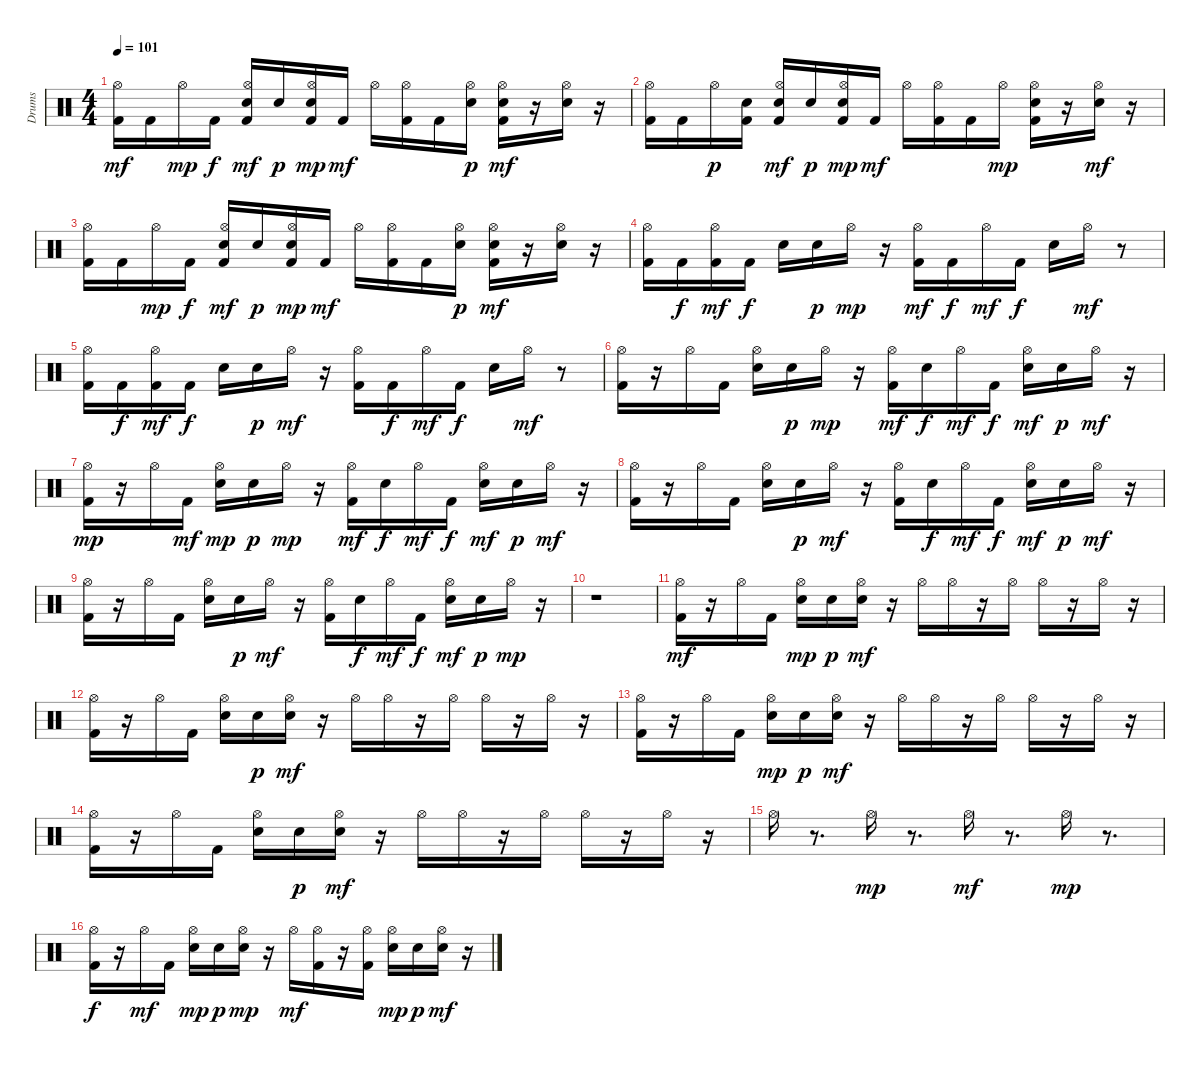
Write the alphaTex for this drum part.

\track ("Drums" "Drums") {instrument percussion}
\staff {score}
\articulation defaults
\ts (4 4)
\tempo 101
\clef neutral
\ks c
("Kick (hit) 2" "Hi-Hat (open)").16{dy mf} "Kick (hit) 2".16 "Hi-Hat (open)".16{dy mp} "Kick (hit) 2".16{dy f} ("Snare (hit) 2" "Hi-Hat (open)" "Kick (hit) 2").16{dy mf} "Snare (hit) 2".16{dy p} ("Kick (hit) 2" "Hi-Hat (open)" "Snare (hit) 2").16{dy mp} "Kick (hit) 2".16{dy mf} "Hi-Hat (open)".16 ("Kick (hit) 2" "Hi-Hat (open)").16 "Kick (hit) 2".16 ("Hi-Hat (open)" "Snare (hit) 2").16{dy p} ("Hi-Hat (open)" "Snare (hit) 2" "Kick (hit) 2").16{dy mf} r.16 ("Snare (hit) 2" "Hi-Hat (open)").16 r.16 |
("Hi-Hat (open)" "Kick (hit) 2").16 "Kick (hit) 2".16 "Hi-Hat (open)".16{dy p} ("Kick (hit) 2" "Snare (hit) 2").16 ("Snare (hit) 2" "Hi-Hat (open)" "Kick (hit) 2").16{dy mf} "Snare (hit) 2".16{dy p} ("Hi-Hat (open)" "Snare (hit) 2" "Kick (hit) 2").16{dy mp} "Kick (hit) 2".16{dy mf} "Hi-Hat (open)".16 ("Hi-Hat (open)" "Kick (hit) 2").16 "Kick (hit) 2".16 "Hi-Hat (open)".16{dy mp} ("Kick (hit) 2" "Snare (hit) 2" "Hi-Hat (open)").16 r.16 ("Snare (hit) 2" "Hi-Hat (open)").16{dy mf} r.16 |
("Kick (hit) 2" "Hi-Hat (open)").16 "Kick (hit) 2".16 "Hi-Hat (open)".16{dy mp} "Kick (hit) 2".16{dy f} ("Snare (hit) 2" "Hi-Hat (open)" "Kick (hit) 2").16{dy mf} "Snare (hit) 2".16{dy p} ("Kick (hit) 2" "Hi-Hat (open)" "Snare (hit) 2").16{dy mp} "Kick (hit) 2".16{dy mf} "Hi-Hat (open)".16 ("Kick (hit) 2" "Hi-Hat (open)").16 "Kick (hit) 2".16 ("Hi-Hat (open)" "Snare (hit) 2").16{dy p} ("Hi-Hat (open)" "Snare (hit) 2" "Kick (hit) 2").16{dy mf} r.16 ("Snare (hit) 2" "Hi-Hat (open)").16 r.16 |
("Kick (hit) 2" "Hi-Hat (open)").16 "Kick (hit) 2".16{dy f} ("Kick (hit) 2" "Hi-Hat (open)").16{dy mf} "Kick (hit) 2".16{dy f} "Snare (hit) 2".16 "Snare (hit) 2".16{dy p} "Hi-Hat (open)".16{dy mp} r.16 ("Hi-Hat (open)" "Kick (hit) 2").16{dy mf} "Kick (hit) 2".16{dy f} "Hi-Hat (open)".16{dy mf} "Kick (hit) 2".16{dy f} "Snare (hit) 2".16 "Hi-Hat (open)".16{dy mf} r.8 |
("Kick (hit) 2" "Hi-Hat (open)").16 "Kick (hit) 2".16{dy f} ("Kick (hit) 2" "Hi-Hat (open)").16{dy mf} "Kick (hit) 2".16{dy f} "Snare (hit) 2".16 "Snare (hit) 2".16{dy p} "Hi-Hat (open)".16{dy mf} r.16 ("Hi-Hat (open)" "Kick (hit) 2").16 "Kick (hit) 2".16{dy f} "Hi-Hat (open)".16{dy mf} "Kick (hit) 2".16{dy f} "Snare (hit) 2".16 "Hi-Hat (open)".16{dy mf} r.8 |
("Kick (hit) 2" "Hi-Hat (open)").16 r.16 "Hi-Hat (open)".16 "Kick (hit) 2".16 ("Snare (hit) 2" "Hi-Hat (open)").16 "Snare (hit) 2".16{dy p} "Hi-Hat (open)".16{dy mp} r.16 ("Kick (hit) 2" "Hi-Hat (open)").16{dy mf} "Snare (hit) 2".16{dy f} "Hi-Hat (open)".16{dy mf} "Kick (hit) 2".16{dy f} ("Hi-Hat (open)" "Snare (hit) 2").16{dy mf} "Snare (hit) 2".16{dy p} "Hi-Hat (open)".16{dy mf} r.16 |
("Kick (hit) 2" "Hi-Hat (open)").16{dy mp} r.16 "Hi-Hat (open)".16 "Kick (hit) 2".16{dy mf} ("Hi-Hat (open)" "Snare (hit) 2").16{dy mp} "Snare (hit) 2".16{dy p} "Hi-Hat (open)".16{dy mp} r.16 ("Hi-Hat (open)" "Kick (hit) 2").16{dy mf} "Snare (hit) 2".16{dy f} "Hi-Hat (open)".16{dy mf} "Kick (hit) 2".16{dy f} ("Snare (hit) 2" "Hi-Hat (open)").16{dy mf} "Snare (hit) 2".16{dy p} "Hi-Hat (open)".16{dy mf} r.16 |
("Kick (hit) 2" "Hi-Hat (open)").16 r.16 "Hi-Hat (open)".16 "Kick (hit) 2".16 ("Snare (hit) 2" "Hi-Hat (open)").16 "Snare (hit) 2".16{dy p} "Hi-Hat (open)".16{dy mf} r.16 ("Kick (hit) 2" "Hi-Hat (open)").16 "Snare (hit) 2".16{dy f} "Hi-Hat (open)".16{dy mf} "Kick (hit) 2".16{dy f} ("Snare (hit) 2" "Hi-Hat (open)").16{dy mf} "Snare (hit) 2".16{dy p} "Hi-Hat (open)".16{dy mf} r.16 |
("Hi-Hat (open)" "Kick (hit) 2").16 r.16 "Hi-Hat (open)".16 "Kick (hit) 2".16 ("Hi-Hat (open)" "Snare (hit) 2").16 "Snare (hit) 2".16{dy p} "Hi-Hat (open)".16{dy mf} r.16 ("Kick (hit) 2" "Hi-Hat (open)").16 "Snare (hit) 2".16{dy f} "Hi-Hat (open)".16{dy mf} "Kick (hit) 2".16{dy f} ("Snare (hit) 2" "Hi-Hat (open)").16{dy mf} "Snare (hit) 2".16{dy p} "Hi-Hat (open)".16{dy mp} r.16 |
r.1 |
("Kick (hit) 2" "Hi-Hat (open)").16{dy mf} r.16 "Hi-Hat (open)".16 "Kick (hit) 2".16 ("Snare (hit) 2" "Hi-Hat (open)").16{dy mp} "Snare (hit) 2".16{dy p} ("Hi-Hat (open)" "Snare (hit) 2").16{dy mf} r.16 "Hi-Hat (open)".16 "Hi-Hat (open)".16 r.16 "Hi-Hat (open)".16 "Hi-Hat (open)".16 r.16 "Hi-Hat (open)".16 r.16 |
("Kick (hit) 2" "Hi-Hat (open)").16 r.16 "Hi-Hat (open)".16 "Kick (hit) 2".16 ("Snare (hit) 2" "Hi-Hat (open)").16 "Snare (hit) 2".16{dy p} ("Snare (hit) 2" "Hi-Hat (open)").16{dy mf} r.16 "Hi-Hat (open)".16 "Hi-Hat (open)".16 r.16 "Hi-Hat (open)".16 "Hi-Hat (open)".16 r.16 "Hi-Hat (open)".16 r.16 |
("Kick (hit) 2" "Hi-Hat (open)").16 r.16 "Hi-Hat (open)".16 "Kick (hit) 2".16 ("Snare (hit) 2" "Hi-Hat (open)").16{dy mp} "Snare (hit) 2".16{dy p} ("Hi-Hat (open)" "Snare (hit) 2").16{dy mf} r.16 "Hi-Hat (open)".16 "Hi-Hat (open)".16 r.16 "Hi-Hat (open)".16 "Hi-Hat (open)".16 r.16 "Hi-Hat (open)".16 r.16 |
("Kick (hit) 2" "Hi-Hat (open)").16 r.16 "Hi-Hat (open)".16 "Kick (hit) 2".16 ("Snare (hit) 2" "Hi-Hat (open)").16 "Snare (hit) 2".16{dy p} ("Snare (hit) 2" "Hi-Hat (open)").16{dy mf} r.16 "Hi-Hat (open)".16 "Hi-Hat (open)".16 r.16 "Hi-Hat (open)".16 "Hi-Hat (open)".16 r.16 "Hi-Hat (open)".16 r.16 |
"Hi-Hat (open)".16 r.8{d} "Hi-Hat (open)".16{dy mp} r.8{d} "Hi-Hat (open)".16{dy mf} r.8{d} "Hi-Hat (open)".16{dy mp} r.8{d} |
("Kick (hit) 2" "Hi-Hat (open)").16{dy f} r.16 "Hi-Hat (open)".16{dy mf} "Kick (hit) 2".16 ("Snare (hit) 2" "Hi-Hat (open)").16{dy mp} "Snare (hit) 2".16{dy p} ("Hi-Hat (open)" "Snare (hit) 2").16{dy mp} r.16 "Hi-Hat (open)".16{dy mf} ("Hi-Hat (open)" "Kick (hit) 2").16 r.16 ("Hi-Hat (open)" "Kick (hit) 2").16 ("Hi-Hat (open)" "Snare (hit) 2").16{dy mp} "Snare (hit) 2".16{dy p} ("Hi-Hat (open)" "Snare (hit) 2").16{dy mf} r.16
